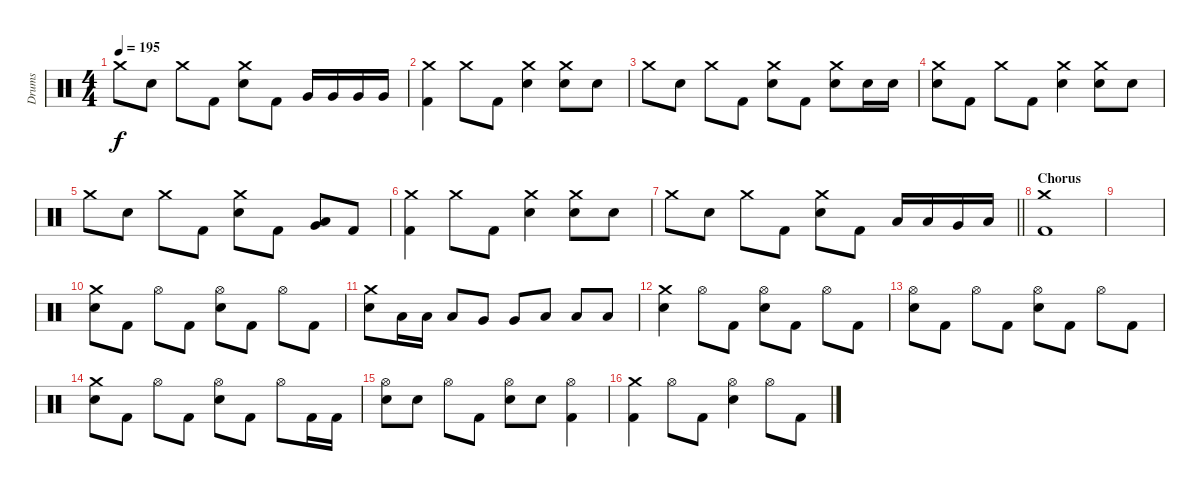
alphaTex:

\track ("Drums" "Drums") {instrument percussion}
\staff {score}
\articulation defaults
\ts (4 4)
\tempo 195
\clef neutral
\ks c "Crash medium (hit)".8{dy f} "Electric Snare (hit)".8 "Crash medium (hit)".8 "Kick (hit) 2".8
("Crash medium (hit)" "Electric Snare (hit)").8 "Kick (hit) 2".8 "Very Low Tom (hit)".16 "Very Low Tom (hit)".16 "Very Low Tom (hit)".16 "Very Low Tom (hit)".16 |
("Crash medium (hit)" "Kick (hit) 2").4 "Crash medium (hit)".8 "Kick (hit) 2".8 ("Crash medium (hit)" "Electric Snare (hit)").4 ("Crash medium (hit)" "Electric Snare (hit)").8 "Electric Snare (hit)".8 |
"Crash medium (hit)".8 "Electric Snare (hit)".8 "Crash medium (hit)".8 "Kick (hit) 2".8 ("Crash medium (hit)" "Electric Snare (hit)").8 "Kick (hit) 2".8 ("Crash medium (hit)" "Electric Snare (hit)").8 "Electric Snare (hit)".16 "Electric Snare (hit)".16 |
("Crash medium (hit)" "Electric Snare (hit)").8 "Kick (hit) 2".8 "Crash medium (hit)".8 "Kick (hit) 2".8 ("Crash medium (hit)" "Electric Snare (hit)").4 ("Crash medium (hit)" "Electric Snare (hit)").8 "Electric Snare (hit)".8 |
"Crash medium (hit)".8 "Electric Snare (hit)".8 "Crash medium (hit)".8 "Kick (hit) 2".8 ("Crash medium (hit)" "Electric Snare (hit)").8 "Kick (hit) 2".8 ("Very Low Tom (hit)" "Low Floor Tom (hit)").8 "Kick (hit) 2".8 |
("Crash medium (hit)" "Kick (hit) 2").4 "Crash medium (hit)".8 "Kick (hit) 2".8 ("Crash medium (hit)" "Electric Snare (hit)").4 ("Crash medium (hit)" "Electric Snare (hit)").8 "Electric Snare (hit)".8 |
\barLineRight lightlight "Crash medium (hit)".8 "Electric Snare (hit)".8 "Crash medium (hit)".8 "Kick (hit) 2".8
("Crash medium (hit)" "Electric Snare (hit)").8 "Kick (hit) 2".8 "Low Tom (hit)".16 "Low Tom (hit)".16 "Very Low Tom (hit)".16 "Low Floor Tom (hit)".16 |
\section ("" "Chorus")
("Crash medium (hit)" "Kick (hit) 2").1 |
|
("Crash medium (hit)" "Electric Snare (hit)").8 "Kick (hit) 2".8 "Hi-Hat (open)".8 "Kick (hit) 2".8 ("Hi-Hat (open)" "Electric Snare (hit)").8 "Kick (hit) 2".8 "Hi-Hat (open)".8 "Kick (hit) 2".8 |
("Crash medium (hit)" "Electric Snare (hit)").8 "Low Tom (hit)".16 "Low Tom (hit)".16 "Low Tom (hit)".8 "Very Low Tom (hit)".8 "Very Low Tom (hit)".8 "Low Floor Tom (hit)".8 "Low Floor Tom (hit)".8 "Low Floor Tom (hit)".8 |
("Crash medium (hit)" "Electric Snare (hit)").4 "Hi-Hat (open)".8 "Kick (hit) 2".8 ("Hi-Hat (open)" "Electric Snare (hit)").8 "Kick (hit) 2".8 "Hi-Hat (open)".8 "Kick (hit) 2".8 |
("Hi-Hat (open)" "Electric Snare (hit)").8 "Kick (hit) 2".8 "Hi-Hat (open)".8 "Kick (hit) 2".8 ("Hi-Hat (open)" "Electric Snare (hit)").8 "Kick (hit) 2".8 "Hi-Hat (open)".8 "Kick (hit) 2".8 |
("Crash medium (hit)" "Electric Snare (hit)").8 "Kick (hit) 2".8 "Hi-Hat (open)".8 "Kick (hit) 2".8 ("Hi-Hat (open)" "Electric Snare (hit)").8 "Kick (hit) 2".8 "Hi-Hat (open)".8 "Kick (hit) 2".16 "Kick (hit) 2".16 |
("Hi-Hat (open)" "Electric Snare (hit)").8 "Electric Snare (hit)".8 "Hi-Hat (open)".8 "Kick (hit) 2".8 ("Hi-Hat (open)" "Electric Snare (hit)").8 "Electric Snare (hit)".8 ("Hi-Hat (open)" "Kick (hit) 2").4 |
("Crash medium (hit)" "Kick (hit) 2").4 "Hi-Hat (open)".8 "Kick (hit) 2".8 ("Hi-Hat (open)" "Electric Snare (hit)").4 "Hi-Hat (open)".8 "Kick (hit) 2".8
